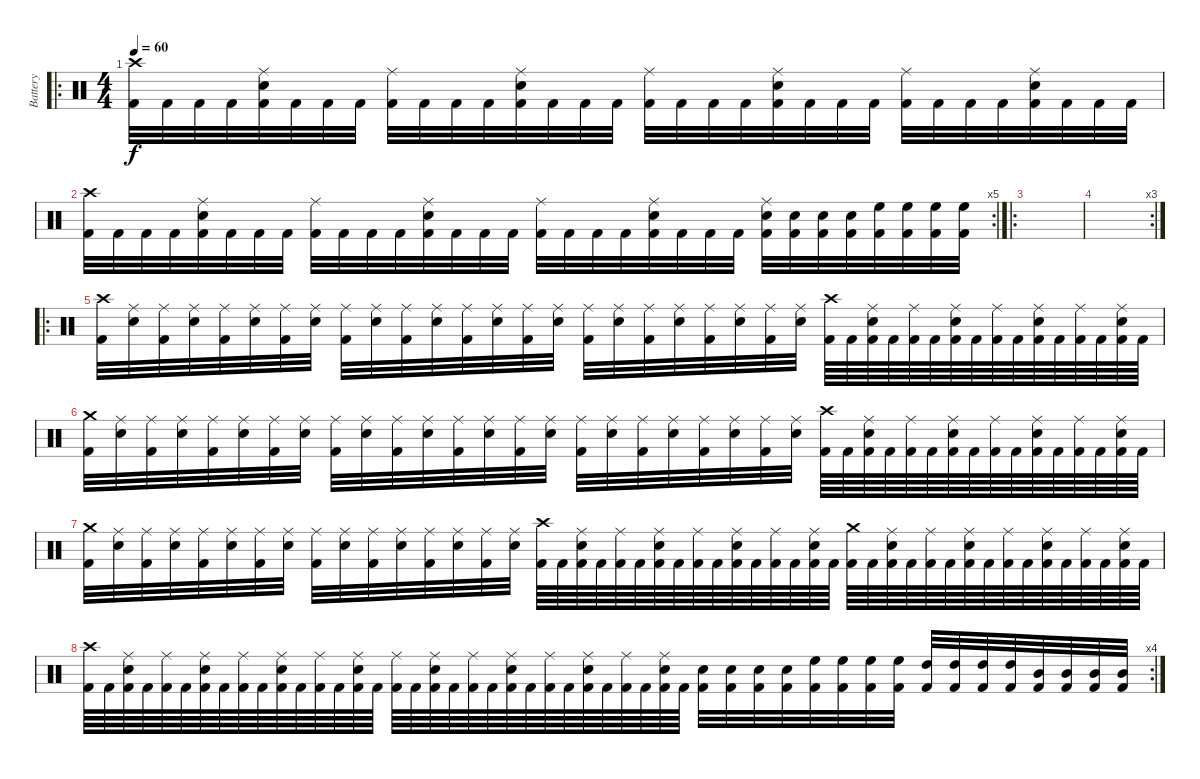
\track ("Battery" "Battery") {instrument percussion}
\staff {score}
\articulation defaults
\ro
\ts (4 4)
\tempo 60
\clef neutral
\ks c
("Kick (hit) 2" "Crash high (hit)").32{dy f} "Kick (hit) 2".32 "Kick (hit) 2".32 "Kick (hit) 2".32 ("Kick (hit) 2" "Ride (middle)" "Snare (hit) 2").32 "Kick (hit) 2".32 "Kick (hit) 2".32 "Kick (hit) 2".32 ("Kick (hit) 2" "Ride (middle)").32 "Kick (hit) 2".32 "Kick (hit) 2".32 "Kick (hit) 2".32 ("Kick (hit) 2" "Ride (middle)" "Snare (hit) 2").32 "Kick (hit) 2".32 "Kick (hit) 2".32 "Kick (hit) 2".32 ("Kick (hit) 2" "Ride (middle)").32 "Kick (hit) 2".32 "Kick (hit) 2".32 "Kick (hit) 2".32 ("Kick (hit) 2" "Ride (middle)" "Snare (hit) 2").32 "Kick (hit) 2".32 "Kick (hit) 2".32 "Kick (hit) 2".32 ("Kick (hit) 2" "Ride (middle)").32 "Kick (hit) 2".32 "Kick (hit) 2".32 "Kick (hit) 2".32 ("Kick (hit) 2" "Ride (middle)" "Snare (hit) 2").32 "Kick (hit) 2".32 "Kick (hit) 2".32 "Kick (hit) 2".32 |
\rc 5
("Kick (hit) 2" "Crash high (hit)").32 "Kick (hit) 2".32 "Kick (hit) 2".32 "Kick (hit) 2".32 ("Kick (hit) 2" "Ride (middle)" "Snare (hit) 2").32 "Kick (hit) 2".32 "Kick (hit) 2".32 "Kick (hit) 2".32 ("Kick (hit) 2" "Ride (middle)").32 "Kick (hit) 2".32 "Kick (hit) 2".32 "Kick (hit) 2".32 ("Kick (hit) 2" "Ride (middle)" "Snare (hit) 2").32 "Kick (hit) 2".32 "Kick (hit) 2".32 "Kick (hit) 2".32 ("Kick (hit) 2" "Ride (middle)").32 "Kick (hit) 2".32 "Kick (hit) 2".32 "Kick (hit) 2".32 ("Kick (hit) 2" "Ride (middle)" "Snare (hit) 2").32 "Kick (hit) 2".32 "Kick (hit) 2".32 "Kick (hit) 2".32 ("Kick (hit) 2" "Ride (middle)" "Snare (hit) 2").32 ("Kick (hit) 2" "Snare (hit) 2").32 ("Kick (hit) 2" "Snare (hit) 2").32 ("Kick (hit) 2" "Snare (hit) 2").32 ("Kick (hit) 2" "High Floor Tom (hit)").32 ("Kick (hit) 2" "High Floor Tom (hit)").32 ("Kick (hit) 2" "High Floor Tom (hit)").32 ("Kick (hit) 2" "High Floor Tom (hit)").32 |
\ro
|
\rc 3
|
\ro
("Kick (hit) 2" "Crash high (hit)").32 ("Snare (hit) 2" "Ride (middle)").32 ("Kick (hit) 2" "Ride (middle)").32 ("Snare (hit) 2" "Ride (middle)").32 ("Kick (hit) 2" "Ride (middle)").32 ("Snare (hit) 2" "Ride (middle)").32 ("Kick (hit) 2" "Ride (middle)").32 ("Snare (hit) 2" "Ride (middle)").32 ("Kick (hit) 2" "Ride (middle)").32 ("Snare (hit) 2" "Ride (middle)").32 ("Kick (hit) 2" "Ride (middle)").32 ("Snare (hit) 2" "Ride (middle)").32 ("Kick (hit) 2" "Ride (middle)").32 ("Snare (hit) 2" "Ride (middle)").32 ("Kick (hit) 2" "Ride (middle)").32 ("Snare (hit) 2" "Ride (middle)").32 ("Kick (hit) 2" "Ride (middle)").32 ("Snare (hit) 2" "Ride (middle)").32 ("Kick (hit) 2" "Ride (middle)").32 ("Snare (hit) 2" "Ride (middle)").32 ("Kick (hit) 2" "Ride (middle)").32 ("Snare (hit) 2" "Ride (middle)").32 ("Kick (hit) 2" "Ride (middle)").32 ("Snare (hit) 2" "Ride (middle)").32 ("Kick (hit) 2" "Crash high (hit)").64 "Kick (hit) 2".64 ("Kick (hit) 2" "Snare (hit) 2" "Ride (middle)").64 "Kick (hit) 2".64 ("Kick (hit) 2" "Ride (middle)").64 "Kick (hit) 2".64 ("Kick (hit) 2" "Snare (hit) 2" "Ride (middle)").64 "Kick (hit) 2".64 ("Kick (hit) 2" "Ride (middle)").64 "Kick (hit) 2".64 ("Kick (hit) 2" "Snare (hit) 2" "Ride (middle)").64 "Kick (hit) 2".64 ("Kick (hit) 2" "Ride (middle)").64 "Kick (hit) 2".64 ("Kick (hit) 2" "Snare (hit) 2" "Ride (middle)").64 "Kick (hit) 2".64 |
("Kick (hit) 2" "Crash medium (hit)").32 ("Snare (hit) 2" "Ride (middle)").32 ("Kick (hit) 2" "Ride (middle)").32 ("Snare (hit) 2" "Ride (middle)").32 ("Kick (hit) 2" "Ride (middle)").32 ("Snare (hit) 2" "Ride (middle)").32 ("Kick (hit) 2" "Ride (middle)").32 ("Snare (hit) 2" "Ride (middle)").32 ("Kick (hit) 2" "Ride (middle)").32 ("Snare (hit) 2" "Ride (middle)").32 ("Kick (hit) 2" "Ride (middle)").32 ("Snare (hit) 2" "Ride (middle)").32 ("Kick (hit) 2" "Ride (middle)").32 ("Snare (hit) 2" "Ride (middle)").32 ("Kick (hit) 2" "Ride (middle)").32 ("Snare (hit) 2" "Ride (middle)").32 ("Kick (hit) 2" "Ride (middle)").32 ("Snare (hit) 2" "Ride (middle)").32 ("Kick (hit) 2" "Ride (middle)").32 ("Snare (hit) 2" "Ride (middle)").32 ("Kick (hit) 2" "Ride (middle)").32 ("Snare (hit) 2" "Ride (middle)").32 ("Kick (hit) 2" "Ride (middle)").32 ("Snare (hit) 2" "Ride (middle)").32 ("Kick (hit) 2" "Crash high (hit)").64 "Kick (hit) 2".64 ("Kick (hit) 2" "Snare (hit) 2" "Ride (middle)").64 "Kick (hit) 2".64 ("Kick (hit) 2" "Ride (middle)").64 "Kick (hit) 2".64 ("Kick (hit) 2" "Snare (hit) 2" "Ride (middle)").64 "Kick (hit) 2".64 ("Kick (hit) 2" "Ride (middle)").64 "Kick (hit) 2".64 ("Kick (hit) 2" "Snare (hit) 2" "Ride (middle)").64 "Kick (hit) 2".64 ("Kick (hit) 2" "Ride (middle)").64 "Kick (hit) 2".64 ("Kick (hit) 2" "Snare (hit) 2" "Ride (middle)").64 "Kick (hit) 2".64 |
("Kick (hit) 2" "Crash medium (hit)").32 ("Snare (hit) 2" "Ride (middle)").32 ("Kick (hit) 2" "Ride (middle)").32 ("Snare (hit) 2" "Ride (middle)").32 ("Kick (hit) 2" "Ride (middle)").32 ("Snare (hit) 2" "Ride (middle)").32 ("Kick (hit) 2" "Ride (middle)").32 ("Snare (hit) 2" "Ride (middle)").32 ("Kick (hit) 2" "Ride (middle)").32 ("Snare (hit) 2" "Ride (middle)").32 ("Kick (hit) 2" "Ride (middle)").32 ("Snare (hit) 2" "Ride (middle)").32 ("Kick (hit) 2" "Ride (middle)").32 ("Snare (hit) 2" "Ride (middle)").32 ("Kick (hit) 2" "Ride (middle)").32 ("Snare (hit) 2" "Ride (middle)").32 ("Kick (hit) 2" "Crash high (hit)").64 "Kick (hit) 2".64 ("Kick (hit) 2" "Snare (hit) 2" "Ride (middle)").64 "Kick (hit) 2".64 ("Kick (hit) 2" "Ride (middle)").64 "Kick (hit) 2".64 ("Kick (hit) 2" "Snare (hit) 2" "Ride (middle)").64 "Kick (hit) 2".64 ("Kick (hit) 2" "Ride (middle)").64 "Kick (hit) 2".64 ("Kick (hit) 2" "Snare (hit) 2" "Ride (middle)").64 "Kick (hit) 2".64 ("Kick (hit) 2" "Ride (middle)").64 "Kick (hit) 2".64 ("Kick (hit) 2" "Snare (hit) 2" "Ride (middle)").64 "Kick (hit) 2".64 ("Kick (hit) 2" "Crash medium (hit)").64 "Kick (hit) 2".64 ("Kick (hit) 2" "Snare (hit) 2" "Ride (middle)").64 "Kick (hit) 2".64 ("Kick (hit) 2" "Ride (middle)").64 "Kick (hit) 2".64 ("Kick (hit) 2" "Snare (hit) 2" "Ride (middle)").64 "Kick (hit) 2".64 ("Kick (hit) 2" "Ride (middle)").64 "Kick (hit) 2".64 ("Kick (hit) 2" "Snare (hit) 2" "Ride (middle)").64 "Kick (hit) 2".64 ("Kick (hit) 2" "Ride (middle)").64 "Kick (hit) 2".64 ("Kick (hit) 2" "Snare (hit) 2" "Ride (middle)").64 "Kick (hit) 2".64 |
\rc 4
("Kick (hit) 2" "Crash high (hit)").64 "Kick (hit) 2".64 ("Kick (hit) 2" "Snare (hit) 2" "Ride (middle)").64 "Kick (hit) 2".64 ("Kick (hit) 2" "Ride (middle)").64 "Kick (hit) 2".64 ("Kick (hit) 2" "Snare (hit) 2" "Ride (middle)").64 "Kick (hit) 2".64 ("Kick (hit) 2" "Ride (middle)").64 "Kick (hit) 2".64 ("Kick (hit) 2" "Snare (hit) 2" "Ride (middle)").64 "Kick (hit) 2".64 ("Kick (hit) 2" "Ride (middle)").64 "Kick (hit) 2".64 ("Kick (hit) 2" "Snare (hit) 2" "Ride (middle)").64 "Kick (hit) 2".64 ("Kick (hit) 2" "Ride (middle)").64 "Kick (hit) 2".64 ("Kick (hit) 2" "Snare (hit) 2" "Ride (middle)").64 "Kick (hit) 2".64 ("Kick (hit) 2" "Ride (middle)").64 "Kick (hit) 2".64 ("Kick (hit) 2" "Snare (hit) 2" "Ride (middle)").64 "Kick (hit) 2".64 ("Kick (hit) 2" "Ride (middle)").64 "Kick (hit) 2".64 ("Kick (hit) 2" "Snare (hit) 2" "Ride (middle)").64 "Kick (hit) 2".64 ("Kick (hit) 2" "Ride (middle)").64 "Kick (hit) 2".64 ("Kick (hit) 2" "Snare (hit) 2" "Ride (middle)").64 "Kick (hit) 2".64 ("Kick (hit) 2" "Snare (hit) 2").32 ("Kick (hit) 2" "Snare (hit) 2").32 ("Kick (hit) 2" "Snare (hit) 2").32 ("Kick (hit) 2" "Snare (hit) 2").32 ("Kick (hit) 2" "High Floor Tom (hit)").32 ("Kick (hit) 2" "High Floor Tom (hit)").32 ("Kick (hit) 2" "High Floor Tom (hit)").32 ("Kick (hit) 2" "High Floor Tom (hit)").32 ("Kick (hit) 2" "High Tom (hit)").32 ("Kick (hit) 2" "High Tom (hit)").32 ("Kick (hit) 2" "High Tom (hit)").32 ("Kick (hit) 2" "High Tom (hit)").32 ("Kick (hit) 2" "Mid Tom (hit)").32 ("Kick (hit) 2" "Mid Tom (hit)").32 ("Kick (hit) 2" "Mid Tom (hit)").32 ("Kick (hit) 2" "Mid Tom (hit)").32
